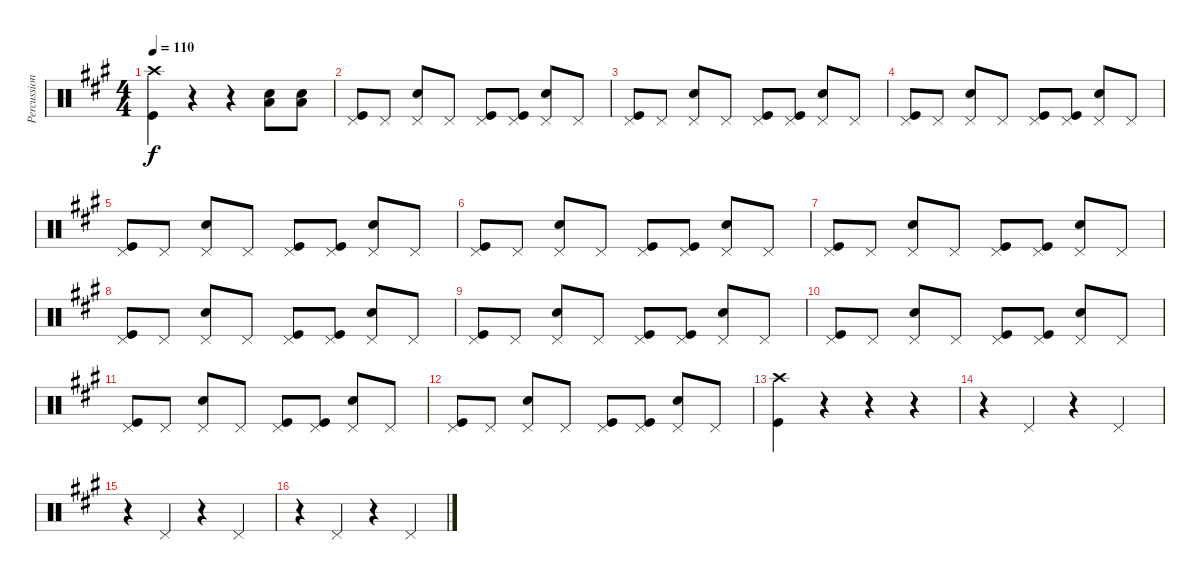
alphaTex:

\track ("Percussion" "Percussion") {instrument percussion}
\staff {score}
\articulation defaults
\ts (4 4)
\tempo 110
\clef neutral
\ks a
("Crash high (hit)" "Kick (hit)").4{dy f} r.4 r.4 ("Low Floor Tom (hit)" "Snare (hit) 2").8 ("Low Floor Tom (hit)" "Snare (hit) 2").8 |
("Pedal Hi-Hat (hit)" "Kick (hit)").8 "Pedal Hi-Hat (hit)".8 ("Pedal Hi-Hat (hit)" "Snare (hit) 2").8 "Pedal Hi-Hat (hit)".8 ("Pedal Hi-Hat (hit)" "Kick (hit)").8 ("Pedal Hi-Hat (hit)" "Kick (hit)").8 ("Pedal Hi-Hat (hit)" "Snare (hit) 2").8 "Pedal Hi-Hat (hit)".8 |
("Pedal Hi-Hat (hit)" "Kick (hit)").8 "Pedal Hi-Hat (hit)".8 ("Pedal Hi-Hat (hit)" "Snare (hit) 2").8 "Pedal Hi-Hat (hit)".8 ("Pedal Hi-Hat (hit)" "Kick (hit)").8 ("Pedal Hi-Hat (hit)" "Kick (hit)").8 ("Pedal Hi-Hat (hit)" "Snare (hit) 2").8 "Pedal Hi-Hat (hit)".8 |
("Pedal Hi-Hat (hit)" "Kick (hit)").8 "Pedal Hi-Hat (hit)".8 ("Pedal Hi-Hat (hit)" "Snare (hit) 2").8 "Pedal Hi-Hat (hit)".8 ("Pedal Hi-Hat (hit)" "Kick (hit)").8 ("Pedal Hi-Hat (hit)" "Kick (hit)").8 ("Pedal Hi-Hat (hit)" "Snare (hit) 2").8 "Pedal Hi-Hat (hit)".8 |
("Pedal Hi-Hat (hit)" "Kick (hit)").8 "Pedal Hi-Hat (hit)".8 ("Pedal Hi-Hat (hit)" "Snare (hit) 2").8 "Pedal Hi-Hat (hit)".8 ("Pedal Hi-Hat (hit)" "Kick (hit)").8 ("Pedal Hi-Hat (hit)" "Kick (hit)").8 ("Pedal Hi-Hat (hit)" "Snare (hit) 2").8 "Pedal Hi-Hat (hit)".8 |
("Pedal Hi-Hat (hit)" "Kick (hit)").8 "Pedal Hi-Hat (hit)".8 ("Pedal Hi-Hat (hit)" "Snare (hit) 2").8 "Pedal Hi-Hat (hit)".8 ("Pedal Hi-Hat (hit)" "Kick (hit)").8 ("Pedal Hi-Hat (hit)" "Kick (hit)").8 ("Pedal Hi-Hat (hit)" "Snare (hit) 2").8 "Pedal Hi-Hat (hit)".8 |
("Pedal Hi-Hat (hit)" "Kick (hit)").8 "Pedal Hi-Hat (hit)".8 ("Pedal Hi-Hat (hit)" "Snare (hit) 2").8 "Pedal Hi-Hat (hit)".8 ("Pedal Hi-Hat (hit)" "Kick (hit)").8 ("Pedal Hi-Hat (hit)" "Kick (hit)").8 ("Pedal Hi-Hat (hit)" "Snare (hit) 2").8 "Pedal Hi-Hat (hit)".8 |
("Pedal Hi-Hat (hit)" "Kick (hit)").8 "Pedal Hi-Hat (hit)".8 ("Pedal Hi-Hat (hit)" "Snare (hit) 2").8 "Pedal Hi-Hat (hit)".8 ("Pedal Hi-Hat (hit)" "Kick (hit)").8 ("Pedal Hi-Hat (hit)" "Kick (hit)").8 ("Pedal Hi-Hat (hit)" "Snare (hit) 2").8 "Pedal Hi-Hat (hit)".8 |
("Pedal Hi-Hat (hit)" "Kick (hit)").8 "Pedal Hi-Hat (hit)".8 ("Pedal Hi-Hat (hit)" "Snare (hit) 2").8 "Pedal Hi-Hat (hit)".8 ("Pedal Hi-Hat (hit)" "Kick (hit)").8 ("Pedal Hi-Hat (hit)" "Kick (hit)").8 ("Pedal Hi-Hat (hit)" "Snare (hit) 2").8 "Pedal Hi-Hat (hit)".8 |
("Pedal Hi-Hat (hit)" "Kick (hit)").8 "Pedal Hi-Hat (hit)".8 ("Pedal Hi-Hat (hit)" "Snare (hit) 2").8 "Pedal Hi-Hat (hit)".8 ("Pedal Hi-Hat (hit)" "Kick (hit)").8 ("Pedal Hi-Hat (hit)" "Kick (hit)").8 ("Pedal Hi-Hat (hit)" "Snare (hit) 2").8 "Pedal Hi-Hat (hit)".8 |
("Pedal Hi-Hat (hit)" "Kick (hit)").8 "Pedal Hi-Hat (hit)".8 ("Pedal Hi-Hat (hit)" "Snare (hit) 2").8 "Pedal Hi-Hat (hit)".8 ("Pedal Hi-Hat (hit)" "Kick (hit)").8 ("Pedal Hi-Hat (hit)" "Kick (hit)").8 ("Pedal Hi-Hat (hit)" "Snare (hit) 2").8 "Pedal Hi-Hat (hit)".8 |
("Pedal Hi-Hat (hit)" "Kick (hit)").8 "Pedal Hi-Hat (hit)".8 ("Pedal Hi-Hat (hit)" "Snare (hit) 2").8 "Pedal Hi-Hat (hit)".8 ("Pedal Hi-Hat (hit)" "Kick (hit)").8 ("Pedal Hi-Hat (hit)" "Kick (hit)").8 ("Pedal Hi-Hat (hit)" "Snare (hit) 2").8 "Pedal Hi-Hat (hit)".8 |
("Crash high (hit)" "Kick (hit)").4 r.4 r.4 r.4 |
r.4 "Pedal Hi-Hat (hit)".4 r.4 "Pedal Hi-Hat (hit)".4 |
r.4 "Pedal Hi-Hat (hit)".4 r.4 "Pedal Hi-Hat (hit)".4 |
r.4 "Pedal Hi-Hat (hit)".4 r.4 "Pedal Hi-Hat (hit)".4
